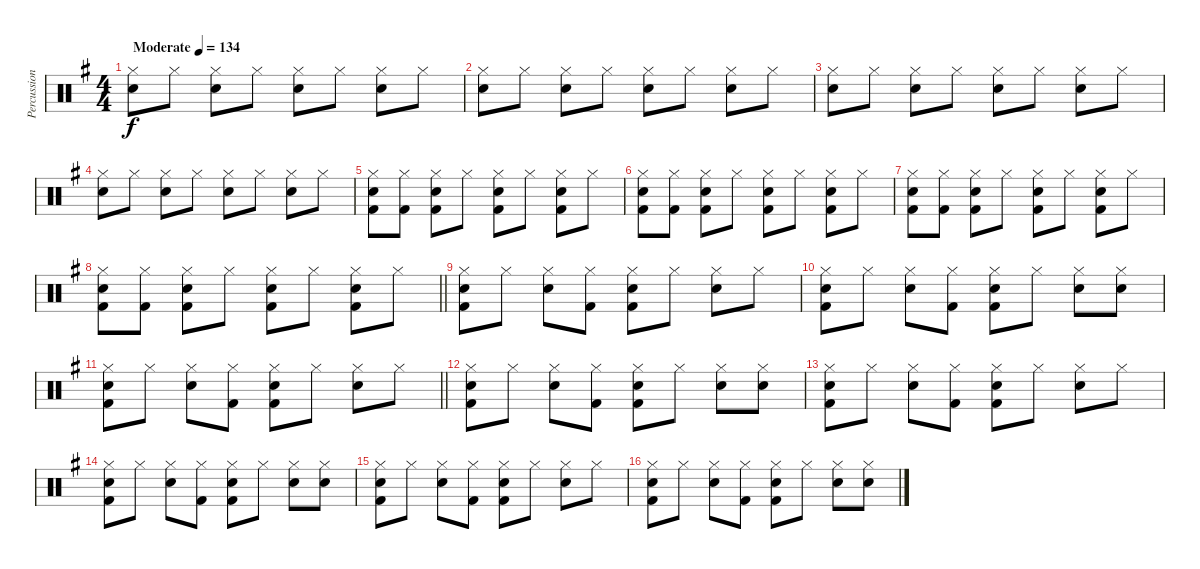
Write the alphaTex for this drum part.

\track ("Percussion" "Percussion") {instrument percussion}
\staff {score}
\articulation defaults
\ts (4 4)
\tempo (134 "Moderate")
\clef neutral
\ks g
("Hi-Hat (closed)" "Electric Snare (hit)").8{dy f} "Hi-Hat (closed)".8 ("Hi-Hat (closed)" "Electric Snare (hit)").8 "Hi-Hat (closed)".8 ("Hi-Hat (closed)" "Electric Snare (hit)").8 "Hi-Hat (closed)".8 ("Hi-Hat (closed)" "Electric Snare (hit)").8 "Hi-Hat (closed)".8 |
("Hi-Hat (closed)" "Electric Snare (hit)").8 "Hi-Hat (closed)".8 ("Hi-Hat (closed)" "Electric Snare (hit)").8 "Hi-Hat (closed)".8 ("Hi-Hat (closed)" "Electric Snare (hit)").8 "Hi-Hat (closed)".8 ("Hi-Hat (closed)" "Electric Snare (hit)").8 "Hi-Hat (closed)".8 |
("Hi-Hat (closed)" "Electric Snare (hit)").8 "Hi-Hat (closed)".8 ("Hi-Hat (closed)" "Electric Snare (hit)").8 "Hi-Hat (closed)".8 ("Hi-Hat (closed)" "Electric Snare (hit)").8 "Hi-Hat (closed)".8 ("Hi-Hat (closed)" "Electric Snare (hit)").8 "Hi-Hat (closed)".8 |
("Hi-Hat (closed)" "Electric Snare (hit)").8 "Hi-Hat (closed)".8 ("Hi-Hat (closed)" "Electric Snare (hit)").8 "Hi-Hat (closed)".8 ("Hi-Hat (closed)" "Electric Snare (hit)").8 "Hi-Hat (closed)".8 ("Hi-Hat (closed)" "Electric Snare (hit)").8 "Hi-Hat (closed)".8 |
("Hi-Hat (closed)" "Electric Snare (hit)" "Kick (hit) 2").8 ("Hi-Hat (closed)" "Kick (hit) 2").8 ("Hi-Hat (closed)" "Electric Snare (hit)" "Kick (hit) 2").8 "Hi-Hat (closed)".8 ("Hi-Hat (closed)" "Electric Snare (hit)" "Kick (hit) 2").8 "Hi-Hat (closed)".8 ("Hi-Hat (closed)" "Electric Snare (hit)" "Kick (hit) 2").8 "Hi-Hat (closed)".8 |
("Hi-Hat (closed)" "Electric Snare (hit)" "Kick (hit) 2").8 ("Hi-Hat (closed)" "Kick (hit) 2").8 ("Hi-Hat (closed)" "Electric Snare (hit)" "Kick (hit) 2").8 "Hi-Hat (closed)".8 ("Hi-Hat (closed)" "Electric Snare (hit)" "Kick (hit) 2").8 "Hi-Hat (closed)".8 ("Hi-Hat (closed)" "Electric Snare (hit)" "Kick (hit) 2").8 "Hi-Hat (closed)".8 |
("Hi-Hat (closed)" "Electric Snare (hit)" "Kick (hit) 2").8 ("Hi-Hat (closed)" "Kick (hit) 2").8 ("Hi-Hat (closed)" "Electric Snare (hit)" "Kick (hit) 2").8 "Hi-Hat (closed)".8 ("Hi-Hat (closed)" "Electric Snare (hit)" "Kick (hit) 2").8 "Hi-Hat (closed)".8 ("Hi-Hat (closed)" "Electric Snare (hit)" "Kick (hit) 2").8 "Hi-Hat (closed)".8 |
\barLineRight lightlight
("Hi-Hat (closed)" "Electric Snare (hit)" "Kick (hit) 2").8 ("Hi-Hat (closed)" "Kick (hit) 2").8 ("Hi-Hat (closed)" "Electric Snare (hit)" "Kick (hit) 2").8 "Hi-Hat (closed)".8 ("Hi-Hat (closed)" "Electric Snare (hit)" "Kick (hit) 2").8 "Hi-Hat (closed)".8 ("Hi-Hat (closed)" "Electric Snare (hit)" "Kick (hit) 2").8 "Hi-Hat (closed)".8 |
("Hi-Hat (closed)" "Electric Snare (hit)" "Kick (hit) 2").8 "Hi-Hat (closed)".8 ("Hi-Hat (closed)" "Electric Snare (hit)").8 ("Hi-Hat (closed)" "Kick (hit) 2").8 ("Hi-Hat (closed)" "Electric Snare (hit)" "Kick (hit) 2").8 "Hi-Hat (closed)".8 ("Hi-Hat (closed)" "Electric Snare (hit)").8 "Hi-Hat (closed)".8 |
("Hi-Hat (closed)" "Electric Snare (hit)" "Kick (hit) 2").8 "Hi-Hat (closed)".8 ("Hi-Hat (closed)" "Electric Snare (hit)").8 ("Hi-Hat (closed)" "Kick (hit) 2").8 ("Hi-Hat (closed)" "Electric Snare (hit)" "Kick (hit) 2").8 "Hi-Hat (closed)".8 ("Hi-Hat (closed)" "Electric Snare (hit)").8 ("Hi-Hat (closed)" "Electric Snare (hit)").8 |
\barLineRight lightlight
("Hi-Hat (closed)" "Electric Snare (hit)" "Kick (hit) 2").8 "Hi-Hat (closed)".8 ("Hi-Hat (closed)" "Electric Snare (hit)").8 ("Hi-Hat (closed)" "Kick (hit) 2").8 ("Hi-Hat (closed)" "Electric Snare (hit)" "Kick (hit) 2").8 "Hi-Hat (closed)".8 ("Hi-Hat (closed)" "Electric Snare (hit)").8 "Hi-Hat (closed)".8 |
("Hi-Hat (closed)" "Electric Snare (hit)" "Kick (hit) 2").8 "Hi-Hat (closed)".8 ("Hi-Hat (closed)" "Electric Snare (hit)").8 ("Hi-Hat (closed)" "Kick (hit) 2").8 ("Hi-Hat (closed)" "Electric Snare (hit)" "Kick (hit) 2").8 "Hi-Hat (closed)".8 ("Hi-Hat (closed)" "Electric Snare (hit)").8 ("Hi-Hat (closed)" "Electric Snare (hit)").8 |
("Hi-Hat (closed)" "Electric Snare (hit)" "Kick (hit) 2").8 "Hi-Hat (closed)".8 ("Hi-Hat (closed)" "Electric Snare (hit)").8 ("Hi-Hat (closed)" "Kick (hit) 2").8 ("Hi-Hat (closed)" "Electric Snare (hit)" "Kick (hit) 2").8 "Hi-Hat (closed)".8 ("Hi-Hat (closed)" "Electric Snare (hit)").8 "Hi-Hat (closed)".8 |
("Hi-Hat (closed)" "Electric Snare (hit)" "Kick (hit) 2").8 "Hi-Hat (closed)".8 ("Hi-Hat (closed)" "Electric Snare (hit)").8 ("Hi-Hat (closed)" "Kick (hit) 2").8 ("Hi-Hat (closed)" "Electric Snare (hit)" "Kick (hit) 2").8 "Hi-Hat (closed)".8 ("Hi-Hat (closed)" "Electric Snare (hit)").8 ("Hi-Hat (closed)" "Electric Snare (hit)").8 |
("Hi-Hat (closed)" "Electric Snare (hit)" "Kick (hit) 2").8 "Hi-Hat (closed)".8 ("Hi-Hat (closed)" "Electric Snare (hit)").8 ("Hi-Hat (closed)" "Kick (hit) 2").8 ("Hi-Hat (closed)" "Electric Snare (hit)" "Kick (hit) 2").8 "Hi-Hat (closed)".8 ("Hi-Hat (closed)" "Electric Snare (hit)").8 "Hi-Hat (closed)".8 |
("Hi-Hat (closed)" "Electric Snare (hit)" "Kick (hit) 2").8 "Hi-Hat (closed)".8 ("Hi-Hat (closed)" "Electric Snare (hit)").8 ("Hi-Hat (closed)" "Kick (hit) 2").8 ("Hi-Hat (closed)" "Electric Snare (hit)" "Kick (hit) 2").8 "Hi-Hat (closed)".8 ("Hi-Hat (closed)" "Electric Snare (hit)").8 ("Hi-Hat (closed)" "Electric Snare (hit)").8
